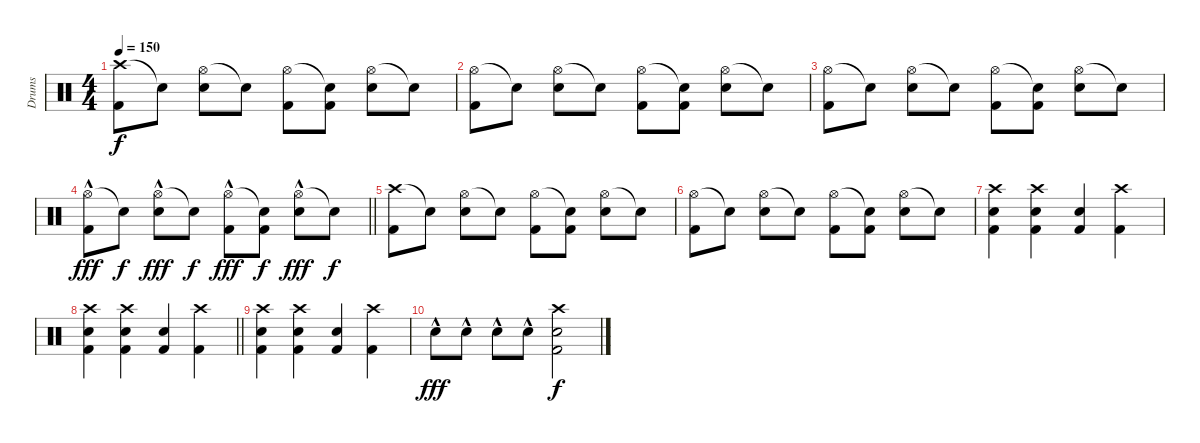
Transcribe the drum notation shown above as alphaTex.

\track ("Drums" "Drums") {instrument percussion}
\staff {score}
\articulation defaults
\ts (4 4)
\tempo 150
\clef neutral
\ks c
("Crash high (hit)" "Kick (hit) 2").8{dy f} "Snare (hit)"{t}.8 ("Hi-Hat (open)" "Electric Snare (hit)").8 "Snare (hit)"{t}.8 ("Hi-Hat (open)" "Kick (hit) 2").8 ("Snare (hit)"{t} "Kick (hit) 2").8 ("Hi-Hat (open)" "Electric Snare (hit)").8 "Snare (hit)"{t}.8 |
("Hi-Hat (open)" "Kick (hit) 2").8 "Snare (hit)"{t}.8 ("Hi-Hat (open)" "Electric Snare (hit)").8 "Snare (hit)"{t}.8 ("Hi-Hat (open)" "Kick (hit) 2").8 ("Snare (hit)"{t} "Kick (hit) 2").8 ("Hi-Hat (open)" "Electric Snare (hit)").8 "Snare (hit)"{t}.8 |
("Hi-Hat (open)" "Kick (hit) 2").8 "Snare (hit)"{t}.8 ("Hi-Hat (open)" "Electric Snare (hit)").8 "Snare (hit)"{t}.8 ("Hi-Hat (open)" "Kick (hit) 2").8 ("Snare (hit)"{t} "Kick (hit) 2").8 ("Hi-Hat (open)" "Electric Snare (hit)").8 "Snare (hit)"{t}.8 |
\barLineRight lightlight
("Hi-Hat (open)"{hac} "Kick (hit) 2").8{dy fff} "Snare (hit)"{t}.8{dy f} ("Hi-Hat (open)"{hac} "Electric Snare (hit)").8{dy fff} "Snare (hit)"{t}.8{dy f} ("Hi-Hat (open)"{hac} "Kick (hit) 2").8{dy fff} ("Snare (hit)"{t} "Kick (hit) 2").8{dy f} ("Hi-Hat (open)"{hac} "Electric Snare (hit)").8{dy fff} "Snare (hit)"{t}.8{dy f} |
("Crash high (hit)" "Kick (hit) 2").8 "Snare (hit)"{t}.8 ("Hi-Hat (open)" "Electric Snare (hit)").8 "Snare (hit)"{t}.8 ("Hi-Hat (open)" "Kick (hit) 2").8 ("Snare (hit)"{t} "Kick (hit) 2").8 ("Hi-Hat (open)" "Electric Snare (hit)").8 "Snare (hit)"{t}.8 |
("Hi-Hat (open)" "Kick (hit) 2").8 "Snare (hit)"{t}.8 ("Hi-Hat (open)" "Electric Snare (hit)").8 "Snare (hit)"{t}.8 ("Hi-Hat (open)" "Kick (hit) 2").8 ("Snare (hit)"{t} "Kick (hit) 2").8 ("Hi-Hat (open)" "Electric Snare (hit)").8 "Snare (hit)"{t}.8 |
("Crash high (hit)" "Electric Snare (hit)" "Kick (hit) 2").4 ("Crash high (hit)" "Electric Snare (hit)" "Kick (hit) 2").4 ("Electric Snare (hit)" "Kick (hit) 2").4 ("Crash high (hit)" "Kick (hit) 2").4 |
\barLineRight lightlight
("Crash high (hit)" "Electric Snare (hit)" "Kick (hit) 2").4 ("Crash high (hit)" "Electric Snare (hit)" "Kick (hit) 2").4 ("Electric Snare (hit)" "Kick (hit) 2").4 ("Crash high (hit)" "Kick (hit) 2").4 |
("Crash high (hit)" "Electric Snare (hit)" "Kick (hit) 2").4 ("Crash high (hit)" "Electric Snare (hit)" "Kick (hit) 2").4 ("Electric Snare (hit)" "Kick (hit) 2").4 ("Crash high (hit)" "Kick (hit) 2").4 |
"Electric Snare (hit)"{hac}.8{dy fff} "Electric Snare (hit)"{hac}.8 "Electric Snare (hit)"{hac}.8 "Electric Snare (hit)"{hac}.8 ("Crash high (hit)" "Electric Snare (hit)" "Kick (hit) 2").2{dy f}
